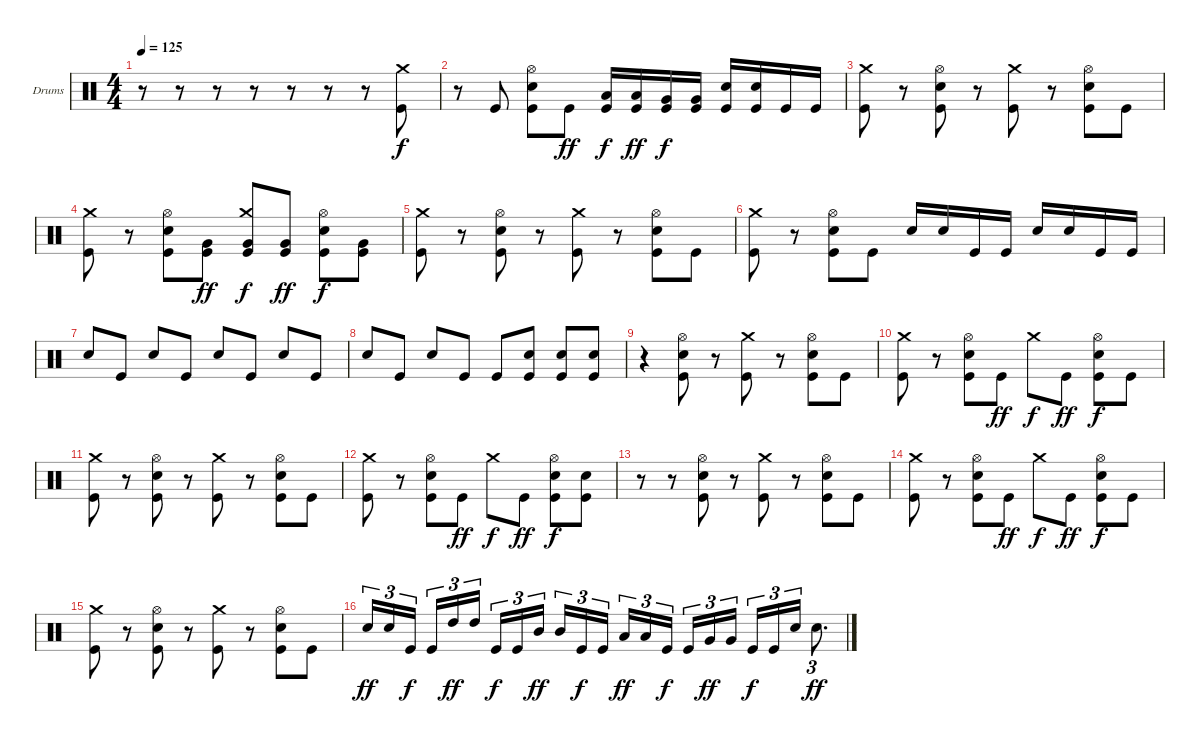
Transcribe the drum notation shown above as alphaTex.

\defaultSystemsLayout 4
\bracketExtendMode groupsimilarinstruments
\firstSystemTrackNameOrientation horizontal
\otherSystemsTrackNameOrientation horizontal
\track ("Drumkit" "Drums") {instrument percussion}
\staff {score}
\articulation defaults
\ts (4 4)
\tempo 125
\clef neutral
\ks c
r.8{dy f} r.8 r.8 r.8 r.8 r.8 r.8 ("Kick (hit)" "Crash medium (hit)").8 |
r.8 "Kick (hit)".8 ("Kick (hit)" "Snare (hit) 2" "Hi-Hat (open)").8 "Kick (hit)".8{dy ff} ("Kick (hit)" "Low Tom (hit)").16{dy f} ("Kick (hit)" "Low Tom (hit)").16{dy ff} ("Kick (hit)" "Very Low Tom (hit)").16{dy f} ("Kick (hit)" "Very Low Tom (hit)").16 ("Kick (hit)" "Snare (hit) 2").16 ("Kick (hit)" "Snare (hit) 2").16 "Kick (hit)".16 "Kick (hit)".16 |
("Kick (hit)" "Crash medium (hit)").8 r.8 ("Kick (hit)" "Snare (hit) 2" "Hi-Hat (open)").8 r.8 ("Kick (hit)" "Crash medium (hit)").8 r.8 ("Kick (hit)" "Snare (hit) 2" "Hi-Hat (open)").8 "Kick (hit)".8 |
("Kick (hit)" "Crash medium (hit)").8 r.8 ("Kick (hit)" "Snare (hit) 2" "Hi-Hat (open)").8 ("Kick (hit)" "Very Low Tom (hit)").8{dy ff} ("Kick (hit)" "Very Low Tom (hit)" "Crash medium (hit)").8{dy f} ("Kick (hit)" "Very Low Tom (hit)").8{dy ff} ("Kick (hit)" "Snare (hit) 2" "Hi-Hat (open)").8{dy f} ("Kick (hit)" "Very Low Tom (hit)").8 |
("Kick (hit)" "Crash medium (hit)").8 r.8 ("Kick (hit)" "Snare (hit) 2" "Hi-Hat (open)").8 r.8 ("Kick (hit)" "Crash medium (hit)").8 r.8 ("Kick (hit)" "Snare (hit) 2" "Hi-Hat (open)").8 "Kick (hit)".8 |
("Kick (hit)" "Crash medium (hit)").8 r.8 ("Kick (hit)" "Snare (hit) 2" "Hi-Hat (open)").8 "Kick (hit)".8 "Snare (hit) 2".16 "Snare (hit) 2".16 "Kick (hit)".16 "Kick (hit)".16 "Snare (hit) 2".16 "Snare (hit) 2".16 "Kick (hit)".16 "Kick (hit)".16 |
"Snare (hit) 2".8 "Kick (hit)".8 "Snare (hit) 2".8 "Kick (hit)".8 "Snare (hit) 2".8 "Kick (hit)".8 "Snare (hit) 2".8 "Kick (hit)".8 |
"Snare (hit) 2".8 "Kick (hit)".8 "Snare (hit) 2".8 "Kick (hit)".8 "Kick (hit)".8 ("Kick (hit)" "Snare (hit) 2").8 ("Kick (hit)" "Snare (hit) 2").8 ("Kick (hit)" "Snare (hit) 2").8 |
r.4 ("Kick (hit)" "Snare (hit) 2" "Hi-Hat (open)").8 r.8 ("Kick (hit)" "Crash medium (hit)").8 r.8 ("Kick (hit)" "Snare (hit) 2" "Hi-Hat (open)").8 "Kick (hit)".8 |
("Kick (hit)" "Crash medium (hit)").8 r.8 ("Kick (hit)" "Snare (hit) 2" "Hi-Hat (open)").8 "Kick (hit)".8{dy ff} "Crash medium (hit)".8{dy f} "Kick (hit)".8{dy ff} ("Kick (hit)" "Snare (hit) 2" "Hi-Hat (open)").8{dy f} "Kick (hit)".8 |
("Kick (hit)" "Crash medium (hit)").8 r.8 ("Kick (hit)" "Snare (hit) 2" "Hi-Hat (open)").8 r.8 ("Kick (hit)" "Crash medium (hit)").8 r.8 ("Kick (hit)" "Snare (hit) 2" "Hi-Hat (open)").8 "Kick (hit)".8 |
("Kick (hit)" "Crash medium (hit)").8 r.8 ("Kick (hit)" "Snare (hit) 2" "Hi-Hat (open)").8 "Kick (hit)".8{dy ff} "Crash medium (hit)".8{dy f} "Kick (hit)".8{dy ff} ("Kick (hit)" "Snare (hit) 2" "Hi-Hat (open)").8{dy f} ("Kick (hit)" "Snare (hit) 2").8 |
r.8 r.8 ("Kick (hit)" "Snare (hit) 2" "Hi-Hat (open)").8 r.8 ("Kick (hit)" "Crash medium (hit)").8 r.8 ("Kick (hit)" "Snare (hit) 2" "Hi-Hat (open)").8 "Kick (hit)".8 |
("Kick (hit)" "Crash medium (hit)").8 r.8 ("Kick (hit)" "Snare (hit) 2" "Hi-Hat (open)").8 "Kick (hit)".8{dy ff} "Crash medium (hit)".8{dy f} "Kick (hit)".8{dy ff} ("Kick (hit)" "Snare (hit) 2" "Hi-Hat (open)").8{dy f} "Kick (hit)".8 |
("Kick (hit)" "Crash medium (hit)").8 r.8 ("Kick (hit)" "Snare (hit) 2" "Hi-Hat (open)").8 r.8 ("Kick (hit)" "Crash medium (hit)").8 r.8 ("Kick (hit)" "Snare (hit) 2" "Hi-Hat (open)").8 "Kick (hit)".8 |
"Snare (hit) 2".16{tu (3 2) dy ff} "Snare (hit) 2".16{tu (3 2)} "Kick (hit)".16{tu (3 2) dy f} "Kick (hit)".16{tu (3 2)} "High Tom (hit)".16{tu (3 2) dy ff} "High Tom (hit)".16{tu (3 2)} "Kick (hit)".16{tu (3 2) dy f} "Kick (hit)".16{tu (3 2)} "Mid Tom (hit)".16{tu (3 2) dy ff} "Mid Tom (hit)".16{tu (3 2)} "Kick (hit)".16{tu (3 2) dy f} "Kick (hit)".16{tu (3 2)} "Low Tom (hit)".16{tu (3 2) dy ff} "Low Tom (hit)".16{tu (3 2)} "Kick (hit)".16{tu (3 2) dy f} "Kick (hit)".16{tu (3 2)} "Very Low Tom (hit)".16{tu (3 2) dy ff} "Very Low Tom (hit)".16{tu (3 2)} "Kick (hit)".16{tu (3 2) dy f} "Kick (hit)".16{tu (3 2)} "Snare (hit) 2".16{tu (3 2)} "Snare (hit) 2".8{d tu (3 2) dy ff}
